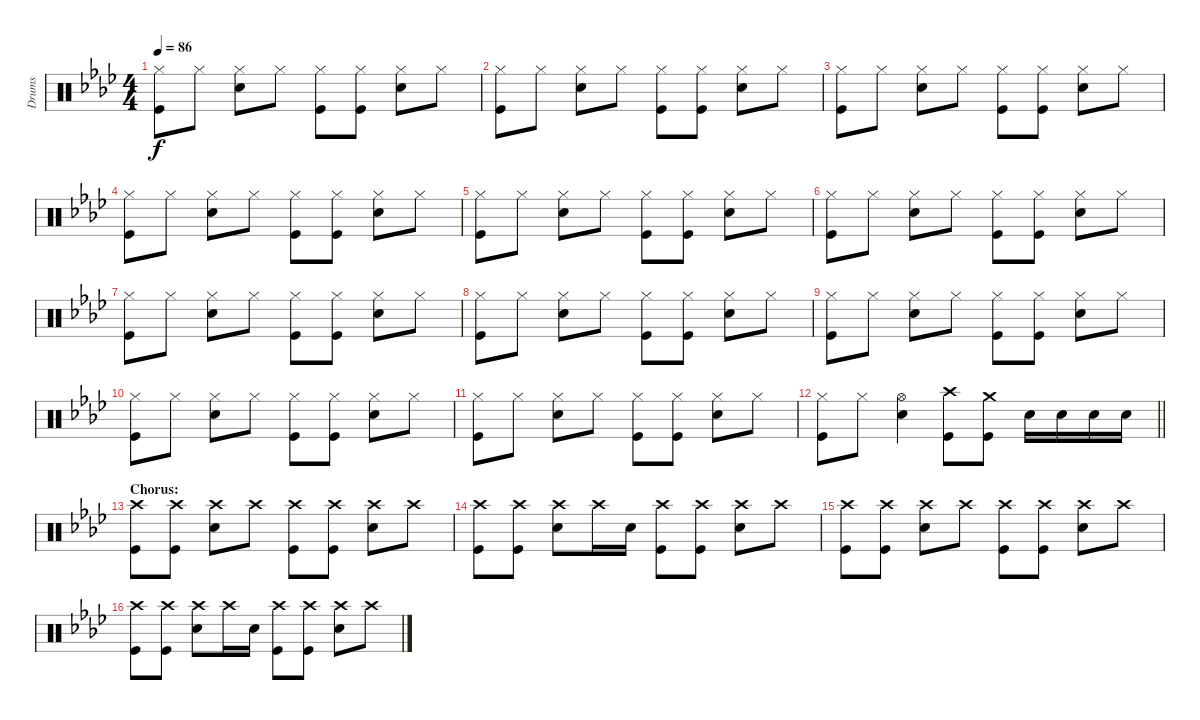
\track ("Drums" "Drums") {instrument percussion}
\staff {score}
\articulation defaults
\ts (4 4)
\tempo 86
\clef neutral
\ks ab
("Hi-Hat (closed)" "Kick (hit)").8{dy f} "Hi-Hat (closed)".8 ("Hi-Hat (closed)" "Snare (hit) 2").8 "Hi-Hat (closed)".8 ("Hi-Hat (closed)" "Kick (hit)").8 ("Hi-Hat (closed)" "Kick (hit)").8 ("Hi-Hat (closed)" "Snare (hit) 2").8 "Hi-Hat (closed)".8 |
("Hi-Hat (closed)" "Kick (hit)").8 "Hi-Hat (closed)".8 ("Hi-Hat (closed)" "Snare (hit) 2").8 "Hi-Hat (closed)".8 ("Hi-Hat (closed)" "Kick (hit)").8 ("Hi-Hat (closed)" "Kick (hit)").8 ("Hi-Hat (closed)" "Snare (hit) 2").8 "Hi-Hat (closed)".8 |
("Hi-Hat (closed)" "Kick (hit)").8 "Hi-Hat (closed)".8 ("Hi-Hat (closed)" "Snare (hit) 2").8 "Hi-Hat (closed)".8 ("Hi-Hat (closed)" "Kick (hit)").8 ("Hi-Hat (closed)" "Kick (hit)").8 ("Hi-Hat (closed)" "Snare (hit) 2").8 "Hi-Hat (closed)".8 |
("Hi-Hat (closed)" "Kick (hit)").8 "Hi-Hat (closed)".8 ("Hi-Hat (closed)" "Snare (hit) 2").8 "Hi-Hat (closed)".8 ("Hi-Hat (closed)" "Kick (hit)").8 ("Hi-Hat (closed)" "Kick (hit)").8 ("Hi-Hat (closed)" "Snare (hit) 2").8 "Hi-Hat (closed)".8 |
("Hi-Hat (closed)" "Kick (hit)").8 "Hi-Hat (closed)".8 ("Hi-Hat (closed)" "Snare (hit) 2").8 "Hi-Hat (closed)".8 ("Hi-Hat (closed)" "Kick (hit)").8 ("Hi-Hat (closed)" "Kick (hit)").8 ("Hi-Hat (closed)" "Snare (hit) 2").8 "Hi-Hat (closed)".8 |
("Hi-Hat (closed)" "Kick (hit)").8 "Hi-Hat (closed)".8 ("Hi-Hat (closed)" "Snare (hit) 2").8 "Hi-Hat (closed)".8 ("Hi-Hat (closed)" "Kick (hit)").8 ("Hi-Hat (closed)" "Kick (hit)").8 ("Hi-Hat (closed)" "Snare (hit) 2").8 "Hi-Hat (closed)".8 |
("Hi-Hat (closed)" "Kick (hit)").8 "Hi-Hat (closed)".8 ("Hi-Hat (closed)" "Snare (hit) 2").8 "Hi-Hat (closed)".8 ("Hi-Hat (closed)" "Kick (hit)").8 ("Hi-Hat (closed)" "Kick (hit)").8 ("Hi-Hat (closed)" "Snare (hit) 2").8 "Hi-Hat (closed)".8 |
("Hi-Hat (closed)" "Kick (hit)").8 "Hi-Hat (closed)".8 ("Hi-Hat (closed)" "Snare (hit) 2").8 "Hi-Hat (closed)".8 ("Hi-Hat (closed)" "Kick (hit)").8 ("Hi-Hat (closed)" "Kick (hit)").8 ("Hi-Hat (closed)" "Snare (hit) 2").8 "Hi-Hat (closed)".8 |
("Hi-Hat (closed)" "Kick (hit)").8 "Hi-Hat (closed)".8 ("Hi-Hat (closed)" "Snare (hit) 2").8 "Hi-Hat (closed)".8 ("Hi-Hat (closed)" "Kick (hit)").8 ("Hi-Hat (closed)" "Kick (hit)").8 ("Hi-Hat (closed)" "Snare (hit) 2").8 "Hi-Hat (closed)".8 |
("Hi-Hat (closed)" "Kick (hit)").8 "Hi-Hat (closed)".8 ("Hi-Hat (closed)" "Snare (hit) 2").8 "Hi-Hat (closed)".8 ("Hi-Hat (closed)" "Kick (hit)").8 ("Hi-Hat (closed)" "Kick (hit)").8 ("Hi-Hat (closed)" "Snare (hit) 2").8 "Hi-Hat (closed)".8 |
("Hi-Hat (closed)" "Kick (hit)").8 "Hi-Hat (closed)".8 ("Hi-Hat (closed)" "Snare (hit) 2").8 "Hi-Hat (closed)".8 ("Hi-Hat (closed)" "Kick (hit)").8 ("Hi-Hat (closed)" "Kick (hit)").8 ("Hi-Hat (closed)" "Snare (hit) 2").8 "Hi-Hat (closed)".8 |
\barLineRight lightlight
("Hi-Hat (closed)" "Kick (hit)").8 "Hi-Hat (closed)".8 ("Hi-Hat (open)" "Snare (hit) 2").4 ("Crash high (hit)" "Kick (hit)").8 ("Crash medium (hit)" "Kick (hit)").8 "Snare (hit) 2".16 "Snare (hit) 2".16 "Snare (hit) 2".16 "Snare (hit) 2".16 |
\section ("" "Chorus:")
("Crash high (hit)" "Kick (hit)").8 ("Crash high (hit)" "Kick (hit)").8 ("Crash high (hit)" "Snare (hit) 2").8 "Crash high (hit)".8 ("Crash high (hit)" "Kick (hit)").8 ("Crash high (hit)" "Kick (hit)").8 ("Crash high (hit)" "Snare (hit) 2").8 "Crash high (hit)".8 |
("Crash high (hit)" "Kick (hit)").8 ("Crash high (hit)" "Kick (hit)").8 ("Crash high (hit)" "Snare (hit) 2").8 "Crash high (hit)".16 "Snare (hit) 2".16 ("Kick (hit)" "Crash high (hit)").8 ("Kick (hit)" "Crash high (hit)").8 ("Snare (hit) 2" "Crash high (hit)").8 "Crash high (hit)".8 |
("Crash high (hit)" "Kick (hit)").8 ("Crash high (hit)" "Kick (hit)").8 ("Crash high (hit)" "Snare (hit) 2").8 "Crash high (hit)".8 ("Crash high (hit)" "Kick (hit)").8 ("Crash high (hit)" "Kick (hit)").8 ("Crash high (hit)" "Snare (hit) 2").8 "Crash high (hit)".8 |
("Crash high (hit)" "Kick (hit)").8 ("Crash high (hit)" "Kick (hit)").8 ("Crash high (hit)" "Snare (hit) 2").8 "Crash high (hit)".16 "Snare (hit) 2".16 ("Kick (hit)" "Crash high (hit)").8 ("Kick (hit)" "Crash high (hit)").8 ("Snare (hit) 2" "Crash high (hit)").8 "Crash high (hit)".8
